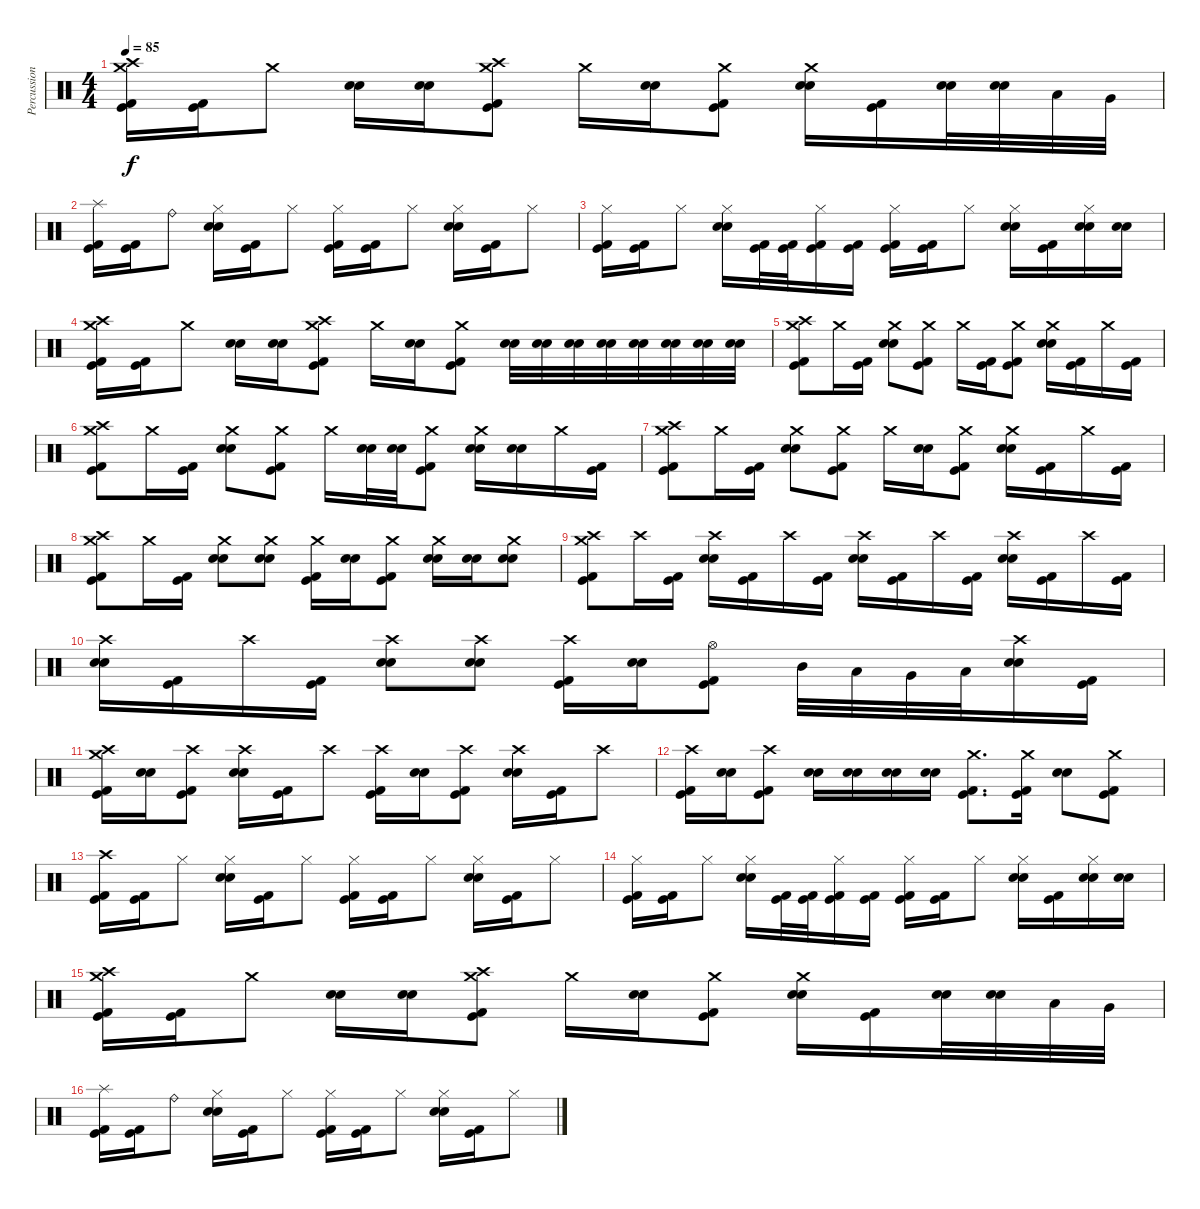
\track ("Percussion" "Percussion") {instrument percussion}
\staff {score}
\articulation defaults
\ts (4 4)
\tempo 85
\clef neutral
\ks c
("Crash high (hit)" "Crash medium (hit)" "Kick (hit)" "Kick (hit) 2").16{dy f} ("Kick (hit)" "Kick (hit) 2").16 "Crash medium (hit)".8 ("Electric Snare (hit)" "Snare (hit) 2").16 ("Electric Snare (hit)" "Snare (hit) 2").16 ("Crash high (hit)" "Crash medium (hit)" "Kick (hit)" "Kick (hit) 2").8 "Crash medium (hit)".16 ("Electric Snare (hit)" "Snare (hit) 2").16 ("Crash medium (hit)" "Kick (hit)" "Kick (hit) 2").8 ("Crash medium (hit)" "Electric Snare (hit)" "Snare (hit) 2").16 ("Kick (hit)" "Kick (hit) 2").16 ("Electric Snare (hit)" "Snare (hit) 2").32 ("Electric Snare (hit)" "Snare (hit) 2").32 "Low Tom (hit)".32 "Very Low Tom (hit)".32 |
("Splash (hit)" "Kick (hit)" "Kick (hit) 2").16{balance 2} ("Kick (hit)" "Kick (hit) 2").16 "Ride (bell)".8{balance 14} ("Hi-Hat (closed)" "Electric Snare (hit)" "Snare (hit) 2").16{balance 8} ("Kick (hit)" "Kick (hit) 2").16 "Hi-Hat (closed)".8 ("Hi-Hat (closed)" "Kick (hit)" "Kick (hit) 2").16 ("Kick (hit)" "Kick (hit) 2").16 "Hi-Hat (closed)".8 ("Hi-Hat (closed)" "Electric Snare (hit)" "Snare (hit) 2").16 ("Kick (hit)" "Kick (hit) 2").16 "Hi-Hat (closed)".8 |
("Hi-Hat (closed)" "Kick (hit)" "Kick (hit) 2").16 ("Kick (hit)" "Kick (hit) 2").16 "Hi-Hat (closed)".8 ("Hi-Hat (closed)" "Electric Snare (hit)" "Snare (hit) 2").16 ("Kick (hit)" "Kick (hit) 2").32 ("Kick (hit)" "Kick (hit) 2").32 ("Hi-Hat (closed)" "Kick (hit)" "Kick (hit) 2").16 ("Kick (hit)" "Kick (hit) 2").16 ("Hi-Hat (closed)" "Kick (hit)" "Kick (hit) 2").16 ("Kick (hit)" "Kick (hit) 2").16 "Hi-Hat (closed)".8 ("Hi-Hat (closed)" "Electric Snare (hit)" "Snare (hit) 2").16 ("Kick (hit)" "Kick (hit) 2").16 ("Hi-Hat (closed)" "Electric Snare (hit)" "Snare (hit) 2").16 ("Electric Snare (hit)" "Snare (hit) 2").16 |
("Crash high (hit)" "Crash medium (hit)" "Kick (hit)" "Kick (hit) 2").16 ("Kick (hit)" "Kick (hit) 2").16 "Crash medium (hit)".8 ("Electric Snare (hit)" "Snare (hit) 2").16 ("Electric Snare (hit)" "Snare (hit) 2").16 ("Crash high (hit)" "Crash medium (hit)" "Kick (hit)" "Kick (hit) 2").8 "Crash medium (hit)".16 ("Electric Snare (hit)" "Snare (hit) 2").16 ("Crash medium (hit)" "Kick (hit)" "Kick (hit) 2").8 ("Electric Snare (hit)" "Snare (hit) 2").32 ("Electric Snare (hit)" "Snare (hit) 2").32 ("Electric Snare (hit)" "Snare (hit) 2").32 ("Electric Snare (hit)" "Snare (hit) 2").32 ("Electric Snare (hit)" "Snare (hit) 2").32 ("Electric Snare (hit)" "Snare (hit) 2").32 ("Electric Snare (hit)" "Snare (hit) 2").32 ("Electric Snare (hit)" "Snare (hit) 2").32 |
("Crash high (hit)" "Crash medium (hit)" "Kick (hit)" "Kick (hit) 2").8 "Crash medium (hit)".16 ("Kick (hit)" "Kick (hit) 2").16 ("Crash medium (hit)" "Electric Snare (hit)" "Snare (hit) 2").8 ("Crash medium (hit)" "Kick (hit)" "Kick (hit) 2").8 "Crash medium (hit)".16 ("Kick (hit)" "Kick (hit) 2").16 ("Crash medium (hit)" "Kick (hit)" "Kick (hit) 2").8 ("Crash medium (hit)" "Electric Snare (hit)" "Snare (hit) 2").16 ("Kick (hit)" "Kick (hit) 2").16 "Crash medium (hit)".16 ("Kick (hit)" "Kick (hit) 2").16 |
("Crash high (hit)" "Crash medium (hit)" "Kick (hit)" "Kick (hit) 2").8 "Crash medium (hit)".16 ("Kick (hit)" "Kick (hit) 2").16 ("Crash medium (hit)" "Electric Snare (hit)" "Snare (hit) 2").8 ("Crash medium (hit)" "Kick (hit)" "Kick (hit) 2").8 "Crash medium (hit)".16 ("Electric Snare (hit)" "Snare (hit) 2").32 ("Electric Snare (hit)" "Snare (hit) 2").32 ("Crash medium (hit)" "Kick (hit)" "Kick (hit) 2").8 ("Crash medium (hit)" "Electric Snare (hit)" "Snare (hit) 2").16 ("Electric Snare (hit)" "Snare (hit) 2").16 "Crash medium (hit)".16 ("Kick (hit)" "Kick (hit) 2").16 |
("Crash high (hit)" "Crash medium (hit)" "Kick (hit)" "Kick (hit) 2").8 "Crash medium (hit)".16 ("Kick (hit)" "Kick (hit) 2").16 ("Crash medium (hit)" "Electric Snare (hit)" "Snare (hit) 2").8 ("Crash medium (hit)" "Kick (hit)" "Kick (hit) 2").8 "Crash medium (hit)".16 ("Electric Snare (hit)" "Snare (hit) 2").16 ("Crash medium (hit)" "Kick (hit)" "Kick (hit) 2").8 ("Crash medium (hit)" "Electric Snare (hit)" "Snare (hit) 2").16 ("Kick (hit)" "Kick (hit) 2").16 "Crash medium (hit)".16 ("Kick (hit)" "Kick (hit) 2").16 |
("Crash high (hit)" "Crash medium (hit)" "Kick (hit)" "Kick (hit) 2").8 "Crash medium (hit)".16 ("Kick (hit)" "Kick (hit) 2").16 ("Crash medium (hit)" "Electric Snare (hit)" "Snare (hit) 2").8 ("Crash medium (hit)" "Electric Snare (hit)" "Snare (hit) 2").8 ("Crash medium (hit)" "Kick (hit)" "Kick (hit) 2").16 ("Electric Snare (hit)" "Snare (hit) 2").16 ("Crash medium (hit)" "Kick (hit)" "Kick (hit) 2").8 ("Crash medium (hit)" "Electric Snare (hit)" "Snare (hit) 2").16 ("Electric Snare (hit)" "Snare (hit) 2").16 ("Crash medium (hit)" "Electric Snare (hit)" "Snare (hit) 2").8 |
("Crash high (hit)" "Crash medium (hit)" "Kick (hit)" "Kick (hit) 2").8 "Crash high (hit)".16 ("Kick (hit)" "Kick (hit) 2").16 ("Crash high (hit)" "Electric Snare (hit)" "Snare (hit) 2").16 ("Kick (hit)" "Kick (hit) 2").16 "Crash high (hit)".16 ("Kick (hit)" "Kick (hit) 2").16 ("Crash high (hit)" "Electric Snare (hit)" "Snare (hit) 2").16 ("Kick (hit)" "Kick (hit) 2").16 "Crash high (hit)".16 ("Kick (hit)" "Kick (hit) 2").16 ("Crash high (hit)" "Electric Snare (hit)" "Snare (hit) 2").16 ("Kick (hit)" "Kick (hit) 2").16 "Crash high (hit)".16 ("Kick (hit)" "Kick (hit) 2").16 |
("Crash high (hit)" "Electric Snare (hit)" "Snare (hit) 2").16 ("Kick (hit)" "Kick (hit) 2").16 "Crash high (hit)".16 ("Kick (hit)" "Kick (hit) 2").16 ("Crash high (hit)" "Electric Snare (hit)" "Snare (hit) 2").8 ("Crash high (hit)" "Electric Snare (hit)" "Snare (hit) 2").8 ("Crash high (hit)" "Kick (hit)" "Kick (hit) 2").16 ("Electric Snare (hit)" "Snare (hit) 2").16 ("Hi-Hat (open)" "Kick (hit)" "Kick (hit) 2").8 "Mid Tom (hit)".32 "Low Tom (hit)".32 "Very Low Tom (hit)".32 "Low Floor Tom (hit)".32 ("Crash high (hit)" "Electric Snare (hit)" "Snare (hit) 2").16 ("Kick (hit)" "Kick (hit) 2").16 |
("Crash high (hit)" "Crash medium (hit)" "Kick (hit)" "Kick (hit) 2").16 ("Electric Snare (hit)" "Snare (hit) 2").16 ("Crash high (hit)" "Kick (hit)" "Kick (hit) 2").8 ("Crash high (hit)" "Electric Snare (hit)" "Snare (hit) 2").16 ("Kick (hit)" "Kick (hit) 2").16 "Crash high (hit)".8 ("Crash high (hit)" "Kick (hit)" "Kick (hit) 2").16 ("Electric Snare (hit)" "Snare (hit) 2").16 ("Crash high (hit)" "Kick (hit)" "Kick (hit) 2").8 ("Crash high (hit)" "Electric Snare (hit)" "Snare (hit) 2").16 ("Kick (hit)" "Kick (hit) 2").16 "Crash high (hit)".8 |
("Crash high (hit)" "Kick (hit)" "Kick (hit) 2").16 ("Electric Snare (hit)" "Snare (hit) 2").16 ("Crash high (hit)" "Kick (hit)" "Kick (hit) 2").8 ("Electric Snare (hit)" "Snare (hit) 2").16 ("Electric Snare (hit)" "Snare (hit) 2").16 ("Electric Snare (hit)" "Snare (hit) 2").16 ("Electric Snare (hit)" "Snare (hit) 2").16 ("Crash medium (hit)" "Kick (hit)" "Kick (hit) 2").8{d} ("Crash medium (hit)" "Kick (hit)" "Kick (hit) 2").16 ("Electric Snare (hit)" "Snare (hit) 2").8 ("Crash medium (hit)" "Kick (hit)" "Kick (hit) 2").8 |
("Crash high (hit)" "Kick (hit)" "Kick (hit) 2").16 ("Kick (hit)" "Kick (hit) 2").16 "Hi-Hat (closed)".8 ("Hi-Hat (closed)" "Electric Snare (hit)" "Snare (hit) 2").16 ("Kick (hit)" "Kick (hit) 2").16 "Hi-Hat (closed)".8 ("Hi-Hat (closed)" "Kick (hit)" "Kick (hit) 2").16 ("Kick (hit)" "Kick (hit) 2").16 "Hi-Hat (closed)".8 ("Hi-Hat (closed)" "Electric Snare (hit)" "Snare (hit) 2").16 ("Kick (hit)" "Kick (hit) 2").16 "Hi-Hat (closed)".8 |
("Hi-Hat (closed)" "Kick (hit)" "Kick (hit) 2").16 ("Kick (hit)" "Kick (hit) 2").16 "Hi-Hat (closed)".8 ("Hi-Hat (closed)" "Electric Snare (hit)" "Snare (hit) 2").16 ("Kick (hit)" "Kick (hit) 2").32 ("Kick (hit)" "Kick (hit) 2").32 ("Hi-Hat (closed)" "Kick (hit)" "Kick (hit) 2").16 ("Kick (hit)" "Kick (hit) 2").16 ("Hi-Hat (closed)" "Kick (hit)" "Kick (hit) 2").16 ("Kick (hit)" "Kick (hit) 2").16 "Hi-Hat (closed)".8 ("Hi-Hat (closed)" "Electric Snare (hit)" "Snare (hit) 2").16 ("Kick (hit)" "Kick (hit) 2").16 ("Hi-Hat (closed)" "Electric Snare (hit)" "Snare (hit) 2").16 ("Electric Snare (hit)" "Snare (hit) 2").16 |
("Crash high (hit)" "Crash medium (hit)" "Kick (hit)" "Kick (hit) 2").16 ("Kick (hit)" "Kick (hit) 2").16 "Crash medium (hit)".8 ("Electric Snare (hit)" "Snare (hit) 2").16 ("Electric Snare (hit)" "Snare (hit) 2").16 ("Crash high (hit)" "Crash medium (hit)" "Kick (hit)" "Kick (hit) 2").8 "Crash medium (hit)".16 ("Electric Snare (hit)" "Snare (hit) 2").16 ("Crash medium (hit)" "Kick (hit)" "Kick (hit) 2").8 ("Crash medium (hit)" "Electric Snare (hit)" "Snare (hit) 2").16 ("Kick (hit)" "Kick (hit) 2").16 ("Electric Snare (hit)" "Snare (hit) 2").32 ("Electric Snare (hit)" "Snare (hit) 2").32 "Low Tom (hit)".32 "Very Low Tom (hit)".32 |
("Splash (hit)" "Kick (hit)" "Kick (hit) 2").16{balance 2} ("Kick (hit)" "Kick (hit) 2").16 "Ride (bell)".8{balance 14} ("Hi-Hat (closed)" "Electric Snare (hit)" "Snare (hit) 2").16{balance 8} ("Kick (hit)" "Kick (hit) 2").16 "Hi-Hat (closed)".8 ("Hi-Hat (closed)" "Kick (hit)" "Kick (hit) 2").16 ("Kick (hit)" "Kick (hit) 2").16 "Hi-Hat (closed)".8 ("Hi-Hat (closed)" "Electric Snare (hit)" "Snare (hit) 2").16 ("Kick (hit)" "Kick (hit) 2").16 "Hi-Hat (closed)".8
